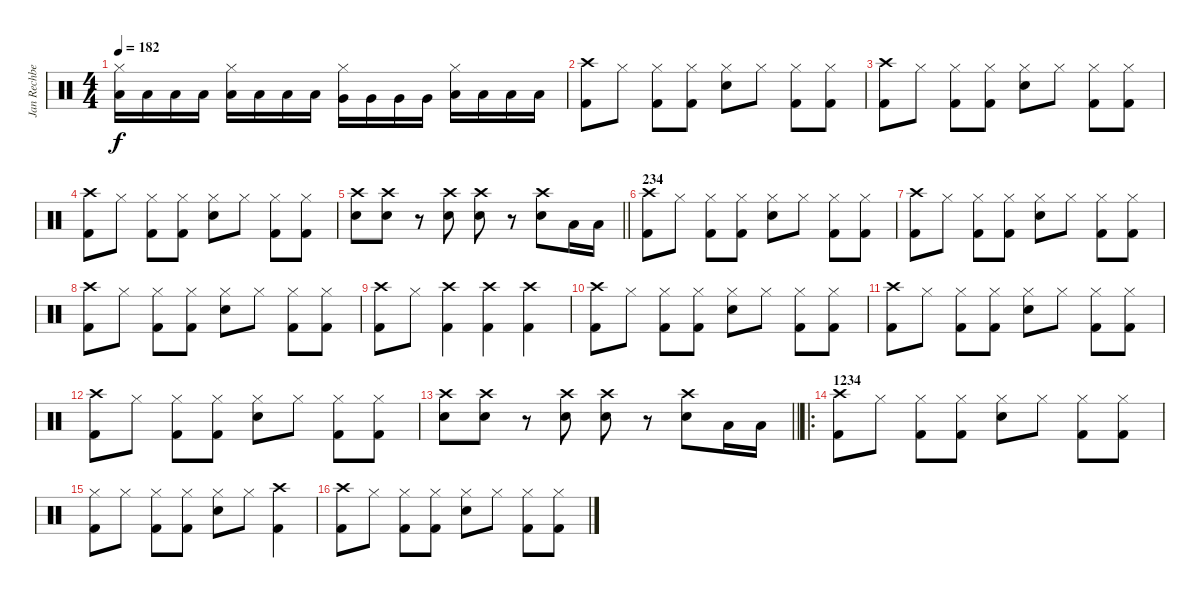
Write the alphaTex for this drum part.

\track ("Jan Rechberger" "Jan Rechbe") {instrument percussion}
\staff {score}
\articulation defaults
\ts (4 4)
\tempo 182
\clef neutral
\ks c
("Low Floor Tom (hit)" "Hi-Hat (closed)").16{dy f} "Low Floor Tom (hit)".16 "Low Floor Tom (hit)".16 "Low Floor Tom (hit)".16 ("Low Floor Tom (hit)" "Hi-Hat (closed)").16 "Low Floor Tom (hit)".16 "Low Floor Tom (hit)".16 "Low Floor Tom (hit)".16 ("Very Low Tom (hit)" "Hi-Hat (closed)").16 "Very Low Tom (hit)".16 "Very Low Tom (hit)".16 "Very Low Tom (hit)".16 ("Low Tom (hit)" "Hi-Hat (closed)").16 "Low Tom (hit)".16 "Low Tom (hit)".16 "Low Tom (hit)".16 |
("Crash high (hit)" "Kick (hit) 2").8 "Hi-Hat (closed)".8 ("Hi-Hat (closed)" "Kick (hit) 2").8 ("Hi-Hat (closed)" "Kick (hit) 2").8 ("Electric Snare (hit)" "Hi-Hat (closed)").8 "Hi-Hat (closed)".8 ("Hi-Hat (closed)" "Kick (hit) 2").8 ("Hi-Hat (closed)" "Kick (hit) 2").8 |
("Crash high (hit)" "Kick (hit) 2").8 "Hi-Hat (closed)".8 ("Hi-Hat (closed)" "Kick (hit) 2").8 ("Hi-Hat (closed)" "Kick (hit) 2").8 ("Electric Snare (hit)" "Hi-Hat (closed)").8 "Hi-Hat (closed)".8 ("Hi-Hat (closed)" "Kick (hit) 2").8 ("Hi-Hat (closed)" "Kick (hit) 2").8 |
("Crash high (hit)" "Kick (hit) 2").8 "Hi-Hat (closed)".8 ("Hi-Hat (closed)" "Kick (hit) 2").8 ("Hi-Hat (closed)" "Kick (hit) 2").8 ("Electric Snare (hit)" "Hi-Hat (closed)").8 "Hi-Hat (closed)".8 ("Hi-Hat (closed)" "Kick (hit) 2").8 ("Hi-Hat (closed)" "Kick (hit) 2").8 |
\barLineRight lightlight
("Electric Snare (hit)" "Crash high (hit)").8 ("Electric Snare (hit)" "Crash high (hit)").8 r.8 ("Electric Snare (hit)" "Crash high (hit)").8 ("Electric Snare (hit)" "Crash high (hit)").8 r.8 ("Electric Snare (hit)" "Crash high (hit)").8 "Low Floor Tom (hit)".16 "Low Floor Tom (hit)".16 |
\section ("" "234")
("Crash high (hit)" "Kick (hit) 2").8 "Hi-Hat (closed)".8 ("Hi-Hat (closed)" "Kick (hit) 2").8 ("Hi-Hat (closed)" "Kick (hit) 2").8 ("Electric Snare (hit)" "Hi-Hat (closed)").8 "Hi-Hat (closed)".8 ("Hi-Hat (closed)" "Kick (hit) 2").8 ("Hi-Hat (closed)" "Kick (hit) 2").8 |
("Crash high (hit)" "Kick (hit) 2").8 "Hi-Hat (closed)".8 ("Hi-Hat (closed)" "Kick (hit) 2").8 ("Hi-Hat (closed)" "Kick (hit) 2").8 ("Electric Snare (hit)" "Hi-Hat (closed)").8 "Hi-Hat (closed)".8 ("Hi-Hat (closed)" "Kick (hit) 2").8 ("Hi-Hat (closed)" "Kick (hit) 2").8 |
("Crash high (hit)" "Kick (hit) 2").8 "Hi-Hat (closed)".8 ("Hi-Hat (closed)" "Kick (hit) 2").8 ("Hi-Hat (closed)" "Kick (hit) 2").8 ("Electric Snare (hit)" "Hi-Hat (closed)").8 "Hi-Hat (closed)".8 ("Hi-Hat (closed)" "Kick (hit) 2").8 ("Hi-Hat (closed)" "Kick (hit) 2").8 |
("Crash high (hit)" "Kick (hit) 2").8 "Hi-Hat (closed)".8 ("Crash high (hit)" "Kick (hit) 2").4 ("Crash high (hit)" "Kick (hit) 2").4 ("Crash high (hit)" "Kick (hit) 2").4 |
("Crash high (hit)" "Kick (hit) 2").8 "Hi-Hat (closed)".8 ("Hi-Hat (closed)" "Kick (hit) 2").8 ("Hi-Hat (closed)" "Kick (hit) 2").8 ("Electric Snare (hit)" "Hi-Hat (closed)").8 "Hi-Hat (closed)".8 ("Hi-Hat (closed)" "Kick (hit) 2").8 ("Hi-Hat (closed)" "Kick (hit) 2").8 |
("Crash high (hit)" "Kick (hit) 2").8 "Hi-Hat (closed)".8 ("Hi-Hat (closed)" "Kick (hit) 2").8 ("Hi-Hat (closed)" "Kick (hit) 2").8 ("Electric Snare (hit)" "Hi-Hat (closed)").8 "Hi-Hat (closed)".8 ("Hi-Hat (closed)" "Kick (hit) 2").8 ("Hi-Hat (closed)" "Kick (hit) 2").8 |
("Crash high (hit)" "Kick (hit) 2").8 "Hi-Hat (closed)".8 ("Hi-Hat (closed)" "Kick (hit) 2").8 ("Hi-Hat (closed)" "Kick (hit) 2").8 ("Electric Snare (hit)" "Hi-Hat (closed)").8 "Hi-Hat (closed)".8 ("Hi-Hat (closed)" "Kick (hit) 2").8 ("Hi-Hat (closed)" "Kick (hit) 2").8 |
\barLineRight lightlight
("Electric Snare (hit)" "Crash high (hit)").8 ("Electric Snare (hit)" "Crash high (hit)").8 r.8 ("Electric Snare (hit)" "Crash high (hit)").8 ("Electric Snare (hit)" "Crash high (hit)").8 r.8 ("Electric Snare (hit)" "Crash high (hit)").8 "Low Floor Tom (hit)".16 "Low Floor Tom (hit)".16 |
\ro
\section ("" "1234")
("Crash high (hit)" "Kick (hit) 2").8 "Hi-Hat (closed)".8 ("Hi-Hat (closed)" "Kick (hit) 2").8 ("Hi-Hat (closed)" "Kick (hit) 2").8 ("Electric Snare (hit)" "Hi-Hat (closed)").8 "Hi-Hat (closed)".8 ("Hi-Hat (closed)" "Kick (hit) 2").8 ("Hi-Hat (closed)" "Kick (hit) 2").8 |
("Hi-Hat (closed)" "Kick (hit) 2").8 "Hi-Hat (closed)".8 ("Hi-Hat (closed)" "Kick (hit) 2").8 ("Hi-Hat (closed)" "Kick (hit) 2").8 ("Electric Snare (hit)" "Hi-Hat (closed)").8 "Hi-Hat (closed)".8 ("Crash high (hit)" "Kick (hit) 2").4 |
("Crash high (hit)" "Kick (hit) 2").8 "Hi-Hat (closed)".8 ("Hi-Hat (closed)" "Kick (hit) 2").8 ("Hi-Hat (closed)" "Kick (hit) 2").8 ("Electric Snare (hit)" "Hi-Hat (closed)").8 "Hi-Hat (closed)".8 ("Hi-Hat (closed)" "Kick (hit) 2").8 ("Hi-Hat (closed)" "Kick (hit) 2").8
